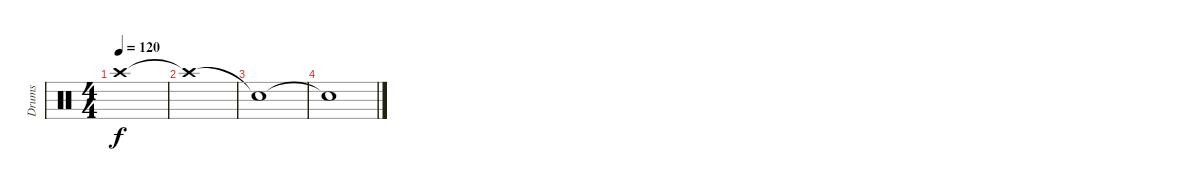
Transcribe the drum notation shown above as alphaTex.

\track ("Drums" "Drums") {instrument percussion}
\staff {score}
\articulation defaults
\ts (4 4)
\tempo 120
\clef neutral
\ks c "Crash high (hit)".1{dy f}
|
"Crash high (hit)"{t}.1 |
"Snare (hit)"{t}.1 |
"Snare (hit)"{t}.1
